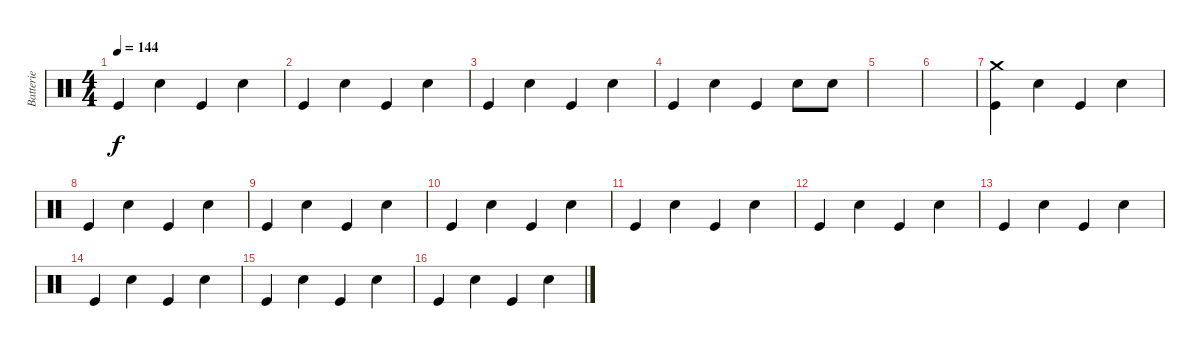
\track ("Batterie" "Batterie") {instrument percussion}
\staff {score}
\articulation defaults
\ts (4 4)
\tempo 144
\clef neutral
\ks c "Kick (hit)".4{dy f} "Snare (hit) 2".4 "Kick (hit)".4 "Snare (hit) 2".4
|
"Kick (hit)".4 "Snare (hit) 2".4 "Kick (hit)".4 "Snare (hit) 2".4 |
"Kick (hit)".4 "Snare (hit) 2".4 "Kick (hit)".4 "Snare (hit) 2".4 |
"Kick (hit)".4 "Snare (hit) 2".4 "Kick (hit)".4 "Snare (hit) 2".8 "Snare (hit) 2".8 |
|
|
("Crash medium (hit)" "Kick (hit)").4 "Snare (hit) 2".4 "Kick (hit)".4 "Snare (hit) 2".4 |
"Kick (hit)".4 "Snare (hit) 2".4 "Kick (hit)".4 "Snare (hit) 2".4 |
"Kick (hit)".4 "Snare (hit) 2".4 "Kick (hit)".4 "Snare (hit) 2".4 |
"Kick (hit)".4 "Snare (hit) 2".4 "Kick (hit)".4 "Snare (hit) 2".4 |
"Kick (hit)".4 "Snare (hit) 2".4 "Kick (hit)".4 "Snare (hit) 2".4 |
"Kick (hit)".4 "Snare (hit) 2".4 "Kick (hit)".4 "Snare (hit) 2".4 |
"Kick (hit)".4 "Snare (hit) 2".4 "Kick (hit)".4 "Snare (hit) 2".4 |
"Kick (hit)".4 "Snare (hit) 2".4 "Kick (hit)".4 "Snare (hit) 2".4 |
"Kick (hit)".4 "Electric Snare (hit)".4 "Kick (hit)".4 "Electric Snare (hit)".4 |
"Kick (hit)".4 "Electric Snare (hit)".4 "Kick (hit)".4 "Electric Snare (hit)".4
